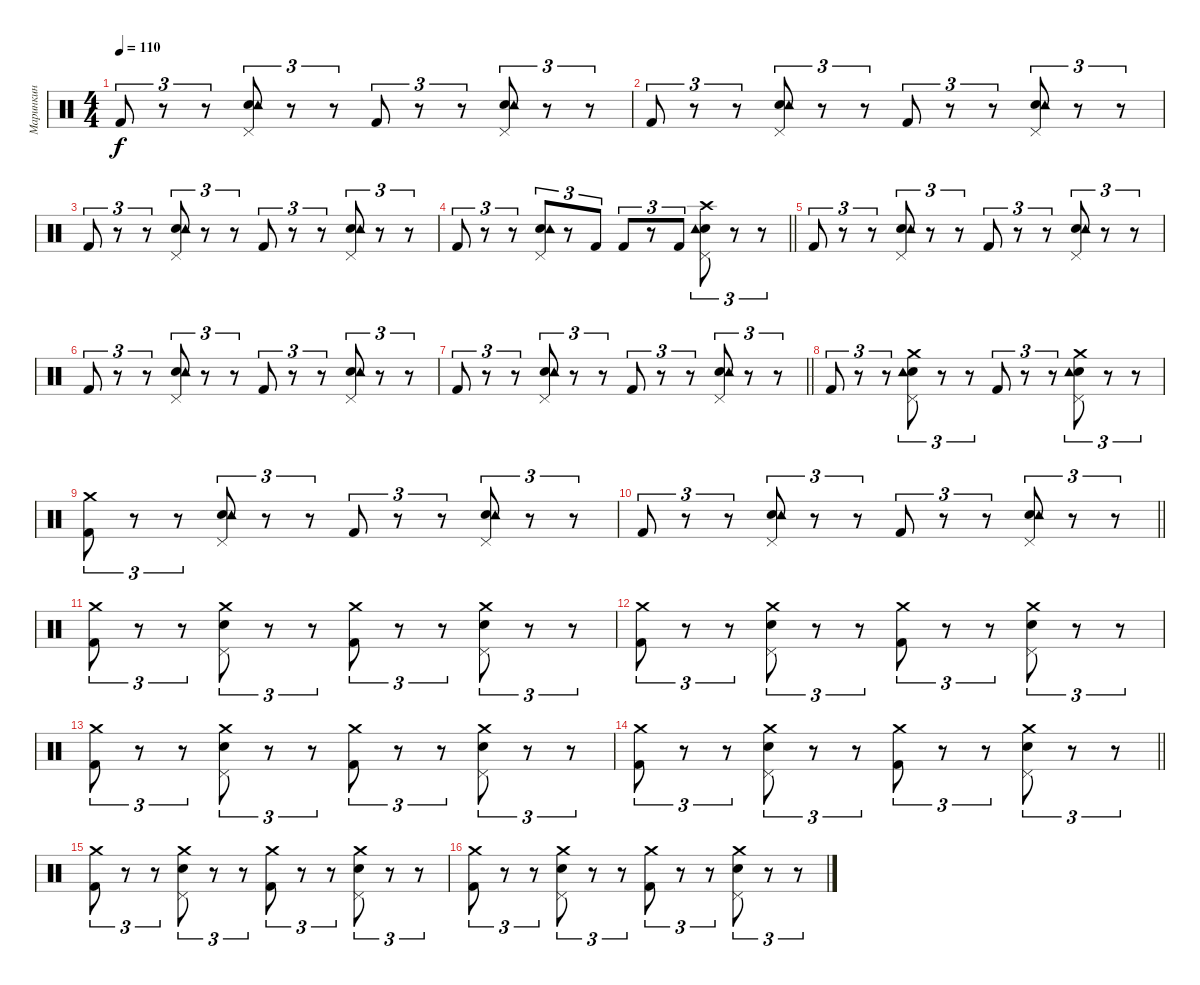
\track ("Маринкин " "Маринкин ") {instrument percussion}
\staff {score}
\articulation defaults
\ts (4 4)
\tempo 110
\clef neutral
\ks c "Kick (hit) 2".8{tu (3 2) dy f}
r.8{tu (3 2)} r.8{tu (3 2)} ("Snare (hit) 2" "Tambourine (hit)" "Pedal Hi-Hat (hit)").8{tu (3 2)} r.8{tu (3 2)} r.8{tu (3 2)} "Kick (hit) 2".8{tu (3 2)} r.8{tu (3 2)} r.8{tu (3 2)} ("Snare (hit) 2" "Tambourine (hit)" "Pedal Hi-Hat (hit)").8{tu (3 2)} r.8{tu (3 2)} r.8{tu (3 2)} |
"Kick (hit) 2".8{tu (3 2)} r.8{tu (3 2)} r.8{tu (3 2)} ("Snare (hit) 2" "Tambourine (hit)" "Pedal Hi-Hat (hit)").8{tu (3 2)} r.8{tu (3 2)} r.8{tu (3 2)} "Kick (hit) 2".8{tu (3 2)} r.8{tu (3 2)} r.8{tu (3 2)} ("Snare (hit) 2" "Tambourine (hit)" "Pedal Hi-Hat (hit)").8{tu (3 2)} r.8{tu (3 2)} r.8{tu (3 2)} |
"Kick (hit) 2".8{tu (3 2)} r.8{tu (3 2)} r.8{tu (3 2)} ("Snare (hit) 2" "Tambourine (hit)" "Pedal Hi-Hat (hit)").8{tu (3 2)} r.8{tu (3 2)} r.8{tu (3 2)} "Kick (hit) 2".8{tu (3 2)} r.8{tu (3 2)} r.8{tu (3 2)} ("Snare (hit) 2" "Tambourine (hit)" "Pedal Hi-Hat (hit)").8{tu (3 2)} r.8{tu (3 2)} r.8{tu (3 2)} |
\barLineRight lightlight "Kick (hit) 2".8{tu (3 2)}
r.8{tu (3 2)} r.8{tu (3 2)} ("Snare (hit) 2" "Tambourine (hit)" "Pedal Hi-Hat (hit)").8{tu (3 2)} r.8{tu (3 2)} "Kick (hit) 2".8{tu (3 2)} "Kick (hit) 2".8{tu (3 2)} r.8{tu (3 2)} "Kick (hit) 2".8{tu (3 2)} ("Snare (hit) 2" "Tambourine (hit)" "Pedal Hi-Hat (hit)" "Crash high (hit)").8{tu (3 2)} r.8{tu (3 2)} r.8{tu (3 2)} |
"Kick (hit) 2".8{tu (3 2)} r.8{tu (3 2)} r.8{tu (3 2)} ("Snare (hit) 2" "Tambourine (hit)" "Pedal Hi-Hat (hit)").8{tu (3 2)} r.8{tu (3 2)} r.8{tu (3 2)} "Kick (hit) 2".8{tu (3 2)} r.8{tu (3 2)} r.8{tu (3 2)} ("Snare (hit) 2" "Tambourine (hit)" "Pedal Hi-Hat (hit)").8{tu (3 2)} r.8{tu (3 2)} r.8{tu (3 2)} |
"Kick (hit) 2".8{tu (3 2)} r.8{tu (3 2)} r.8{tu (3 2)} ("Snare (hit) 2" "Tambourine (hit)" "Pedal Hi-Hat (hit)").8{tu (3 2)} r.8{tu (3 2)} r.8{tu (3 2)} "Kick (hit) 2".8{tu (3 2)} r.8{tu (3 2)} r.8{tu (3 2)} ("Snare (hit) 2" "Tambourine (hit)" "Pedal Hi-Hat (hit)").8{tu (3 2)} r.8{tu (3 2)} r.8{tu (3 2)} |
\barLineRight lightlight "Kick (hit) 2".8{tu (3 2)}
r.8{tu (3 2)} r.8{tu (3 2)} ("Snare (hit) 2" "Tambourine (hit)" "Pedal Hi-Hat (hit)").8{tu (3 2)} r.8{tu (3 2)} r.8{tu (3 2)} "Kick (hit) 2".8{tu (3 2)} r.8{tu (3 2)} r.8{tu (3 2)} ("Snare (hit) 2" "Tambourine (hit)" "Pedal Hi-Hat (hit)").8{tu (3 2)} r.8{tu (3 2)} r.8{tu (3 2)} |
"Kick (hit) 2".8{tu (3 2)} r.8{tu (3 2)} r.8{tu (3 2)} ("Snare (hit) 2" "Tambourine (hit)" "Pedal Hi-Hat (hit)" "Crash medium (hit)").8{tu (3 2)} r.8{tu (3 2)} r.8{tu (3 2)} "Kick (hit) 2".8{tu (3 2)} r.8{tu (3 2)} r.8{tu (3 2)} ("Snare (hit) 2" "Tambourine (hit)" "Pedal Hi-Hat (hit)" "Crash medium (hit)").8{tu (3 2)} r.8{tu (3 2)} r.8{tu (3 2)} |
("Kick (hit) 2" "Crash medium (hit)").8{tu (3 2)} r.8{tu (3 2)} r.8{tu (3 2)} ("Snare (hit) 2" "Tambourine (hit)" "Pedal Hi-Hat (hit)").8{tu (3 2)} r.8{tu (3 2)} r.8{tu (3 2)} "Kick (hit) 2".8{tu (3 2)} r.8{tu (3 2)} r.8{tu (3 2)} ("Snare (hit) 2" "Tambourine (hit)" "Pedal Hi-Hat (hit)").8{tu (3 2)} r.8{tu (3 2)} r.8{tu (3 2)} |
\barLineRight lightlight "Kick (hit) 2".8{tu (3 2)}
r.8{tu (3 2)} r.8{tu (3 2)} ("Snare (hit) 2" "Tambourine (hit)" "Pedal Hi-Hat (hit)").8{tu (3 2)} r.8{tu (3 2)} r.8{tu (3 2)} "Kick (hit) 2".8{tu (3 2)} r.8{tu (3 2)} r.8{tu (3 2)} ("Snare (hit) 2" "Tambourine (hit)" "Pedal Hi-Hat (hit)").8{tu (3 2)} r.8{tu (3 2)} r.8{tu (3 2)} |
("Kick (hit) 2" "Crash medium (hit)").8{tu (3 2)} r.8{tu (3 2)} r.8{tu (3 2)} ("Snare (hit) 2" "Crash medium (hit)" "Pedal Hi-Hat (hit)").8{tu (3 2)} r.8{tu (3 2)} r.8{tu (3 2)} ("Kick (hit) 2" "Crash medium (hit)").8{tu (3 2)} r.8{tu (3 2)} r.8{tu (3 2)} ("Snare (hit) 2" "Crash medium (hit)" "Pedal Hi-Hat (hit)").8{tu (3 2)} r.8{tu (3 2)} r.8{tu (3 2)} |
("Kick (hit) 2" "Crash medium (hit)").8{tu (3 2)} r.8{tu (3 2)} r.8{tu (3 2)} ("Snare (hit) 2" "Crash medium (hit)" "Pedal Hi-Hat (hit)").8{tu (3 2)} r.8{tu (3 2)} r.8{tu (3 2)} ("Kick (hit) 2" "Crash medium (hit)").8{tu (3 2)} r.8{tu (3 2)} r.8{tu (3 2)} ("Snare (hit) 2" "Crash medium (hit)" "Pedal Hi-Hat (hit)").8{tu (3 2)} r.8{tu (3 2)} r.8{tu (3 2)} |
("Kick (hit) 2" "Crash medium (hit)").8{tu (3 2)} r.8{tu (3 2)} r.8{tu (3 2)} ("Snare (hit) 2" "Crash medium (hit)" "Pedal Hi-Hat (hit)").8{tu (3 2)} r.8{tu (3 2)} r.8{tu (3 2)} ("Kick (hit) 2" "Crash medium (hit)").8{tu (3 2)} r.8{tu (3 2)} r.8{tu (3 2)} ("Snare (hit) 2" "Crash medium (hit)" "Pedal Hi-Hat (hit)").8{tu (3 2)} r.8{tu (3 2)} r.8{tu (3 2)} |
\barLineRight lightlight
("Kick (hit) 2" "Crash medium (hit)").8{tu (3 2)} r.8{tu (3 2)} r.8{tu (3 2)} ("Snare (hit) 2" "Crash medium (hit)" "Pedal Hi-Hat (hit)").8{tu (3 2)} r.8{tu (3 2)} r.8{tu (3 2)} ("Kick (hit) 2" "Crash medium (hit)").8{tu (3 2)} r.8{tu (3 2)} r.8{tu (3 2)} ("Snare (hit) 2" "Crash medium (hit)" "Pedal Hi-Hat (hit)").8{tu (3 2)} r.8{tu (3 2)} r.8{tu (3 2)} |
("Kick (hit) 2" "Crash medium (hit)").8{tu (3 2)} r.8{tu (3 2)} r.8{tu (3 2)} ("Snare (hit) 2" "Crash medium (hit)" "Pedal Hi-Hat (hit)").8{tu (3 2)} r.8{tu (3 2)} r.8{tu (3 2)} ("Kick (hit) 2" "Crash medium (hit)").8{tu (3 2)} r.8{tu (3 2)} r.8{tu (3 2)} ("Snare (hit) 2" "Crash medium (hit)" "Pedal Hi-Hat (hit)").8{tu (3 2)} r.8{tu (3 2)} r.8{tu (3 2)} |
("Kick (hit) 2" "Crash medium (hit)").8{tu (3 2)} r.8{tu (3 2)} r.8{tu (3 2)} ("Snare (hit) 2" "Crash medium (hit)" "Pedal Hi-Hat (hit)").8{tu (3 2)} r.8{tu (3 2)} r.8{tu (3 2)} ("Kick (hit) 2" "Crash medium (hit)").8{tu (3 2)} r.8{tu (3 2)} r.8{tu (3 2)} ("Snare (hit) 2" "Crash medium (hit)" "Pedal Hi-Hat (hit)").8{tu (3 2)} r.8{tu (3 2)} r.8{tu (3 2)}
